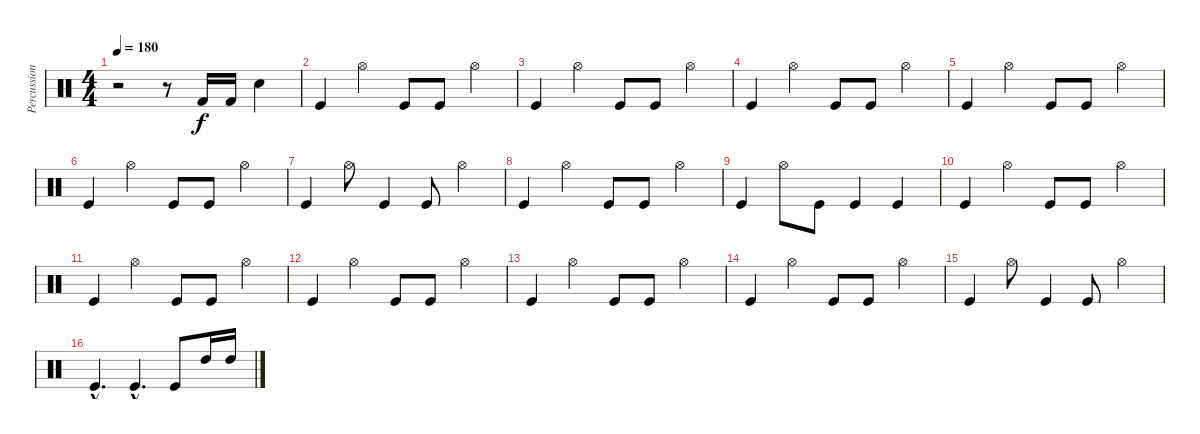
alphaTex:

\track ("Percussion" "Percussion") {instrument percussion}
\staff {score}
\articulation defaults
\ts (4 4)
\tempo 180
\clef neutral
\ks c
r.2{dy f} r.8 "Kick (hit) 2".16 "Kick (hit) 2".16 "Snare (hit) 2".4 |
"Kick (hit)".4 "Hi-Hat (open)".4 "Kick (hit)".8 "Kick (hit)".8 "Hi-Hat (open)".4 |
"Kick (hit)".4 "Hi-Hat (open)".4 "Kick (hit)".8 "Kick (hit)".8 "Hi-Hat (open)".4 |
"Kick (hit)".4 "Hi-Hat (open)".4 "Kick (hit)".8 "Kick (hit)".8 "Hi-Hat (open)".4 |
"Kick (hit)".4 "Hi-Hat (open)".4 "Kick (hit)".8 "Kick (hit)".8 "Hi-Hat (open)".4 |
"Kick (hit)".4 "Hi-Hat (open)".4 "Kick (hit)".8 "Kick (hit)".8 "Hi-Hat (open)".4 |
"Kick (hit)".4 "Hi-Hat (open)".8 "Kick (hit)".4 "Kick (hit)".8 "Hi-Hat (open)".4 |
"Kick (hit)".4 "Hi-Hat (open)".4 "Kick (hit)".8 "Kick (hit)".8 "Hi-Hat (open)".4 |
"Kick (hit)".4 "Hi-Hat (open)".8 "Kick (hit)".8 "Kick (hit)".4 "Kick (hit)".4 |
"Kick (hit)".4 "Hi-Hat (open)".4 "Kick (hit)".8 "Kick (hit)".8 "Hi-Hat (open)".4 |
"Kick (hit)".4 "Hi-Hat (open)".4 "Kick (hit)".8 "Kick (hit)".8 "Hi-Hat (open)".4 |
"Kick (hit)".4 "Hi-Hat (open)".4 "Kick (hit)".8 "Kick (hit)".8 "Hi-Hat (open)".4 |
"Kick (hit)".4 "Hi-Hat (open)".4 "Kick (hit)".8 "Kick (hit)".8 "Hi-Hat (open)".4 |
"Kick (hit)".4 "Hi-Hat (open)".4 "Kick (hit)".8 "Kick (hit)".8 "Hi-Hat (open)".4 |
"Kick (hit)".4 "Hi-Hat (open)".8 "Kick (hit)".4 "Kick (hit)".8 "Hi-Hat (open)".4 |
"Kick (hit)"{hac}.4{d} "Kick (hit)"{hac}.4{d} "Kick (hit)".8 "High Tom (hit)".16 "High Tom (hit)".16
